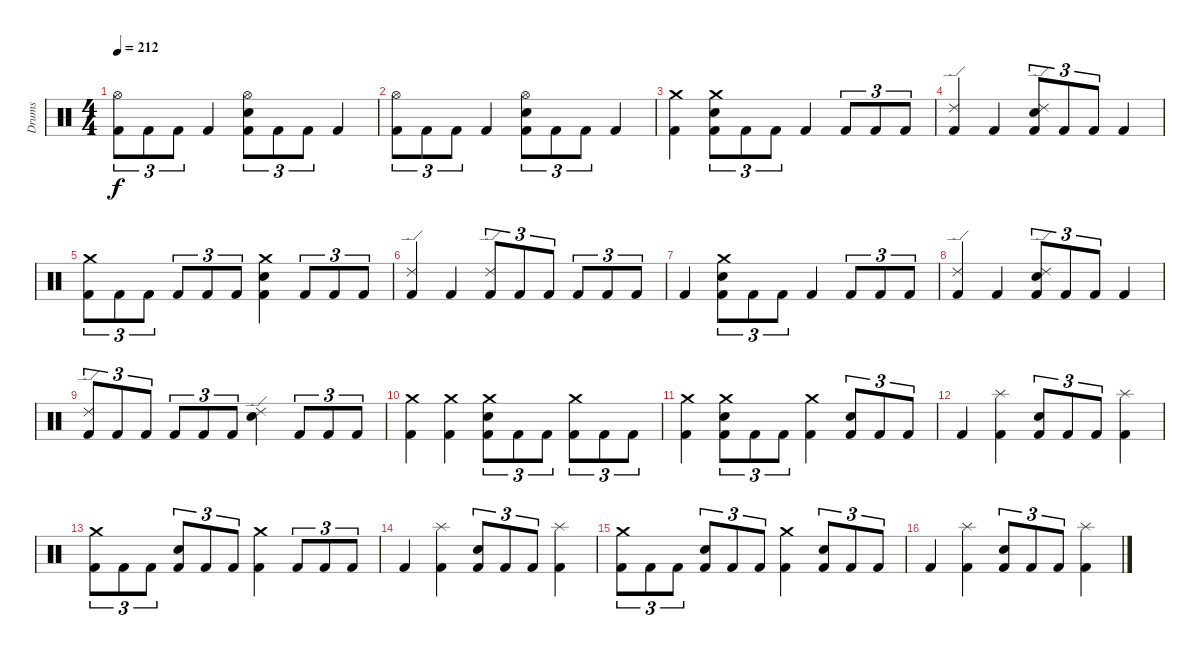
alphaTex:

\track ("Drums" "Drums") {instrument percussion}
\staff {score}
\articulation defaults
\ts (4 4)
\tempo 212
\clef neutral
\ks c
("Hi-Hat (open)" "Kick (hit) 2").8{tu (3 2) dy f} "Kick (hit) 2".8{tu (3 2)} "Kick (hit) 2".8{tu (3 2)} "Kick (hit) 2".4 ("Hi-Hat (open)" "Electric Snare (hit)" "Kick (hit) 2").8{tu (3 2)} "Kick (hit) 2".8{tu (3 2)} "Kick (hit) 2".8{tu (3 2)} "Kick (hit) 2".4 |
("Hi-Hat (open)" "Kick (hit) 2").8{tu (3 2)} "Kick (hit) 2".8{tu (3 2)} "Kick (hit) 2".8{tu (3 2)} "Kick (hit) 2".4 ("Hi-Hat (open)" "Electric Snare (hit)" "Kick (hit) 2").8{tu (3 2)} "Kick (hit) 2".8{tu (3 2)} "Kick (hit) 2".8{tu (3 2)} "Kick (hit) 2".4 |
("Crash medium (hit)" "Kick (hit) 2").4 ("Crash medium (hit)" "Electric Snare (hit)" "Kick (hit) 2").8{tu (3 2)} "Kick (hit) 2".8{tu (3 2)} "Kick (hit) 2".8{tu (3 2)} "Kick (hit) 2".4 "Kick (hit) 2".8{tu (3 2)} "Kick (hit) 2".8{tu (3 2)} "Kick (hit) 2".8{tu (3 2)} |
("Ride (edge) 2" "Kick (hit) 2").4 "Kick (hit) 2".4 ("Ride (edge) 2" "Electric Snare (hit)" "Kick (hit) 2").8{tu (3 2)} "Kick (hit) 2".8{tu (3 2)} "Kick (hit) 2".8{tu (3 2)} "Kick (hit) 2".4 |
("Crash medium (hit)" "Kick (hit) 2").8{tu (3 2)} "Kick (hit) 2".8{tu (3 2)} "Kick (hit) 2".8{tu (3 2)} "Kick (hit) 2".8{tu (3 2)} "Kick (hit) 2".8{tu (3 2)} "Kick (hit) 2".8{tu (3 2)} ("Crash medium (hit)" "Electric Snare (hit)" "Kick (hit) 2").4 "Kick (hit) 2".8{tu (3 2)} "Kick (hit) 2".8{tu (3 2)} "Kick (hit) 2".8{tu (3 2)} |
("Ride (edge) 2" "Kick (hit) 2").4 "Kick (hit) 2".4 ("Ride (edge) 2" "Kick (hit) 2").8{tu (3 2)} "Kick (hit) 2".8{tu (3 2)} "Kick (hit) 2".8{tu (3 2)} "Kick (hit) 2".8{tu (3 2)} "Kick (hit) 2".8{tu (3 2)} "Kick (hit) 2".8{tu (3 2)} |
"Kick (hit) 2".4 ("Crash medium (hit)" "Electric Snare (hit)" "Kick (hit) 2").8{tu (3 2)} "Kick (hit) 2".8{tu (3 2)} "Kick (hit) 2".8{tu (3 2)} "Kick (hit) 2".4 "Kick (hit) 2".8{tu (3 2)} "Kick (hit) 2".8{tu (3 2)} "Kick (hit) 2".8{tu (3 2)} |
("Ride (edge) 2" "Kick (hit) 2").4 "Kick (hit) 2".4 ("Ride (edge) 2" "Electric Snare (hit)" "Kick (hit) 2").8{tu (3 2)} "Kick (hit) 2".8{tu (3 2)} "Kick (hit) 2".8{tu (3 2)} "Kick (hit) 2".4 |
("Ride (edge) 2" "Kick (hit) 2").8{tu (3 2)} "Kick (hit) 2".8{tu (3 2)} "Kick (hit) 2".8{tu (3 2)} "Kick (hit) 2".8{tu (3 2)} "Kick (hit) 2".8{tu (3 2)} "Kick (hit) 2".8{tu (3 2)} ("Ride (edge) 2" "Electric Snare (hit)").4 "Kick (hit) 2".8{tu (3 2)} "Kick (hit) 2".8{tu (3 2)} "Kick (hit) 2".8{tu (3 2)} |
("Crash medium (hit)" "Kick (hit) 2").4 ("Crash medium (hit)" "Kick (hit) 2").4 ("Crash medium (hit)" "Electric Snare (hit)" "Kick (hit) 2").8{tu (3 2)} "Kick (hit) 2".8{tu (3 2)} "Kick (hit) 2".8{tu (3 2)} ("Crash medium (hit)" "Kick (hit) 2").8{tu (3 2)} "Kick (hit) 2".8{tu (3 2)} "Kick (hit) 2".8{tu (3 2)} |
("Crash medium (hit)" "Kick (hit) 2").4 ("Crash medium (hit)" "Electric Snare (hit)" "Kick (hit) 2").8{tu (3 2)} "Kick (hit) 2".8{tu (3 2)} "Kick (hit) 2".8{tu (3 2)} ("Crash medium (hit)" "Kick (hit) 2").4 ("Electric Snare (hit)" "Kick (hit) 2").8{tu (3 2)} "Kick (hit) 2".8{tu (3 2)} "Kick (hit) 2".8{tu (3 2)} |
"Kick (hit) 2".4 ("Splash (hit)" "Kick (hit) 2").4 ("Electric Snare (hit)" "Kick (hit) 2").8{tu (3 2)} "Kick (hit) 2".8{tu (3 2)} "Kick (hit) 2".8{tu (3 2)} ("Splash (hit)" "Kick (hit) 2").4 |
("Crash medium (hit)" "Kick (hit) 2").8{tu (3 2)} "Kick (hit) 2".8{tu (3 2)} "Kick (hit) 2".8{tu (3 2)} ("Electric Snare (hit)" "Kick (hit) 2").8{tu (3 2)} "Kick (hit) 2".8{tu (3 2)} "Kick (hit) 2".8{tu (3 2)} ("Crash medium (hit)" "Kick (hit) 2").4 "Kick (hit) 2".8{tu (3 2)} "Kick (hit) 2".8{tu (3 2)} "Kick (hit) 2".8{tu (3 2)} |
"Kick (hit) 2".4 ("Splash (hit)" "Kick (hit) 2").4 ("Electric Snare (hit)" "Kick (hit) 2").8{tu (3 2)} "Kick (hit) 2".8{tu (3 2)} "Kick (hit) 2".8{tu (3 2)} ("Splash (hit)" "Kick (hit) 2").4 |
("Crash medium (hit)" "Kick (hit) 2").8{tu (3 2)} "Kick (hit) 2".8{tu (3 2)} "Kick (hit) 2".8{tu (3 2)} ("Electric Snare (hit)" "Kick (hit) 2").8{tu (3 2)} "Kick (hit) 2".8{tu (3 2)} "Kick (hit) 2".8{tu (3 2)} ("Crash medium (hit)" "Kick (hit) 2").4 ("Electric Snare (hit)" "Kick (hit) 2").8{tu (3 2)} "Kick (hit) 2".8{tu (3 2)} "Kick (hit) 2".8{tu (3 2)} |
"Kick (hit) 2".4 ("Splash (hit)" "Kick (hit) 2").4 ("Electric Snare (hit)" "Kick (hit) 2").8{tu (3 2)} "Kick (hit) 2".8{tu (3 2)} "Kick (hit) 2".8{tu (3 2)} ("Splash (hit)" "Kick (hit) 2").4
